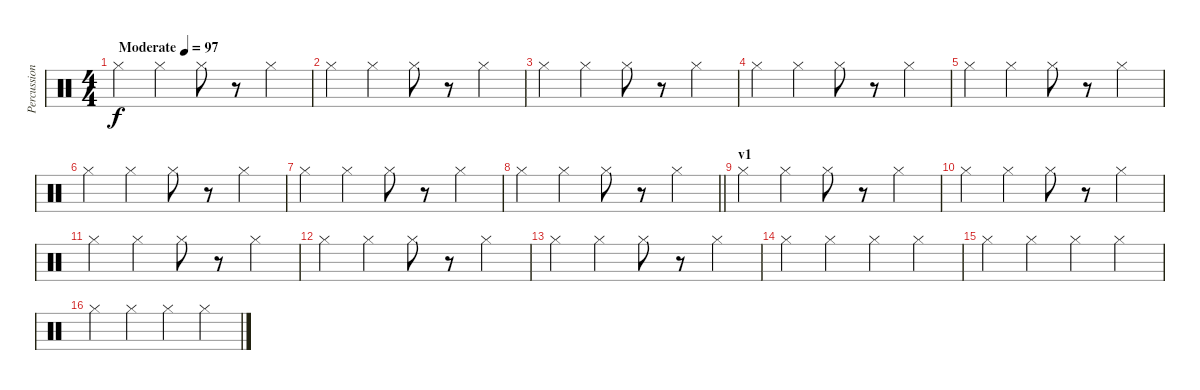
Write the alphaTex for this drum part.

\track ("Percussion" "Percussion") {instrument percussion}
\staff {score}
\articulation defaults
\ts (4 4)
\tempo (97 "Moderate")
\clef neutral
\ks c "Hi-Hat (closed)".4{dy f} "Hi-Hat (closed)".4 "Hi-Hat (closed)".8
r.8 "Hi-Hat (closed)".4 |
"Hi-Hat (closed)".4 "Hi-Hat (closed)".4 "Hi-Hat (closed)".8 r.8 "Hi-Hat (closed)".4 |
"Hi-Hat (closed)".4 "Hi-Hat (closed)".4 "Hi-Hat (closed)".8 r.8 "Hi-Hat (closed)".4 |
"Hi-Hat (closed)".4 "Hi-Hat (closed)".4 "Hi-Hat (closed)".8 r.8 "Hi-Hat (closed)".4 |
"Hi-Hat (closed)".4 "Hi-Hat (closed)".4 "Hi-Hat (closed)".8 r.8 "Hi-Hat (closed)".4 |
"Hi-Hat (closed)".4 "Hi-Hat (closed)".4 "Hi-Hat (closed)".8 r.8 "Hi-Hat (closed)".4 |
"Hi-Hat (closed)".4 "Hi-Hat (closed)".4 "Hi-Hat (closed)".8 r.8 "Hi-Hat (closed)".4 |
\barLineRight lightlight "Hi-Hat (closed)".4 "Hi-Hat (closed)".4 "Hi-Hat (closed)".8
r.8 "Hi-Hat (closed)".4 |
\section ("" "v1")
"Hi-Hat (closed)".4 "Hi-Hat (closed)".4 "Hi-Hat (closed)".8 r.8 "Hi-Hat (closed)".4 |
"Hi-Hat (closed)".4 "Hi-Hat (closed)".4 "Hi-Hat (closed)".8 r.8 "Hi-Hat (closed)".4 |
"Hi-Hat (closed)".4 "Hi-Hat (closed)".4 "Hi-Hat (closed)".8 r.8 "Hi-Hat (closed)".4 |
"Hi-Hat (closed)".4 "Hi-Hat (closed)".4 "Hi-Hat (closed)".8 r.8 "Hi-Hat (closed)".4 |
"Hi-Hat (closed)".4 "Hi-Hat (closed)".4 "Hi-Hat (closed)".8 r.8 "Hi-Hat (closed)".4 |
"Hi-Hat (closed)".4 "Hi-Hat (closed)".4 "Hi-Hat (closed)".4 "Hi-Hat (closed)".4 |
"Hi-Hat (closed)".4 "Hi-Hat (closed)".4 "Hi-Hat (closed)".4 "Hi-Hat (closed)".4 |
"Hi-Hat (closed)".4 "Hi-Hat (closed)".4 "Hi-Hat (closed)".4 "Hi-Hat (closed)".4
